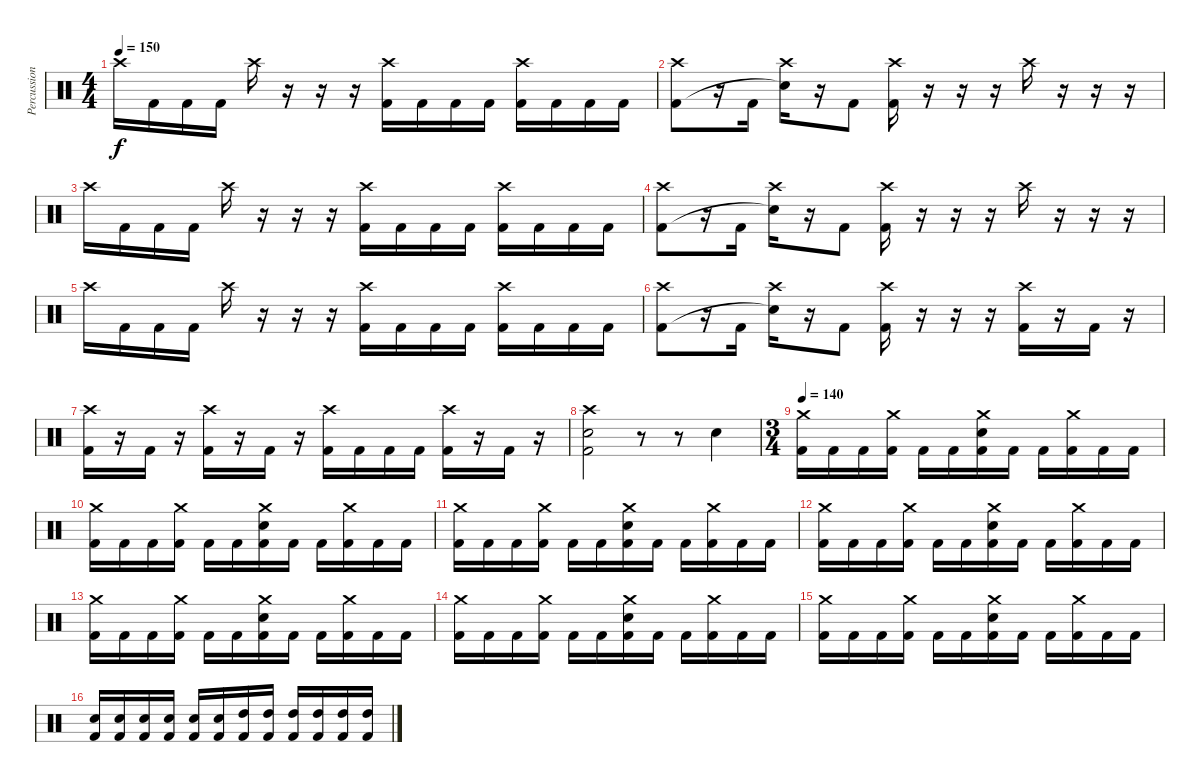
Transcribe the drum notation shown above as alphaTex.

\track ("Percussion" "Percussion") {instrument percussion}
\staff {score}
\articulation defaults
\ts (4 4)
\tempo 150
\clef neutral
\ks c "Crash high (hit)".16{dy f} "Kick (hit) 2".16 "Kick (hit) 2".16 "Kick (hit) 2".16 "Crash high (hit)".16
r.16 r.16 r.16 ("Crash high (hit)" "Kick (hit) 2").16 "Kick (hit) 2".16 "Kick (hit) 2".16 "Kick (hit) 2".16 ("Crash high (hit)" "Kick (hit) 2").16 "Kick (hit) 2".16 "Kick (hit) 2".16 "Kick (hit) 2".16 |
("Crash high (hit)" "Kick (hit) 2").8 r.16 "Kick (hit) 2".16 ("Crash high (hit)" "Snare (hit)"{t}).16 r.16 "Kick (hit) 2".8 ("Crash high (hit)" "Kick (hit) 2").16 r.16 r.16 r.16 "Crash high (hit)".16 r.16 r.16 r.16 |
"Crash high (hit)".16 "Kick (hit) 2".16 "Kick (hit) 2".16 "Kick (hit) 2".16 "Crash high (hit)".16 r.16 r.16 r.16 ("Crash high (hit)" "Kick (hit) 2").16 "Kick (hit) 2".16 "Kick (hit) 2".16 "Kick (hit) 2".16 ("Crash high (hit)" "Kick (hit) 2").16 "Kick (hit) 2".16 "Kick (hit) 2".16 "Kick (hit) 2".16 |
("Crash high (hit)" "Kick (hit) 2").8 r.16 "Kick (hit) 2".16 ("Crash high (hit)" "Snare (hit)"{t}).16 r.16 "Kick (hit) 2".8 ("Crash high (hit)" "Kick (hit) 2").16 r.16 r.16 r.16 "Crash high (hit)".16 r.16 r.16 r.16 |
"Crash high (hit)".16 "Kick (hit) 2".16 "Kick (hit) 2".16 "Kick (hit) 2".16 "Crash high (hit)".16 r.16 r.16 r.16 ("Crash high (hit)" "Kick (hit) 2").16 "Kick (hit) 2".16 "Kick (hit) 2".16 "Kick (hit) 2".16 ("Crash high (hit)" "Kick (hit) 2").16 "Kick (hit) 2".16 "Kick (hit) 2".16 "Kick (hit) 2".16 |
("Crash high (hit)" "Kick (hit) 2").8 r.16 "Kick (hit) 2".16 ("Crash high (hit)" "Snare (hit)"{t}).16 r.16 "Kick (hit) 2".8 ("Crash high (hit)" "Kick (hit) 2").16 r.16 r.16 r.16 ("Crash high (hit)" "Kick (hit) 2").16 r.16 "Kick (hit) 2".16 r.16 |
("Crash high (hit)" "Kick (hit) 2").16 r.16 "Kick (hit) 2".16 r.16 ("Crash high (hit)" "Kick (hit) 2").16 r.16 "Kick (hit) 2".16 r.16 ("Crash high (hit)" "Kick (hit) 2").16 "Kick (hit) 2".16 "Kick (hit) 2".16 "Kick (hit) 2".16 ("Crash high (hit)" "Kick (hit) 2").16 r.16 "Kick (hit) 2".16 r.16 |
("Crash high (hit)" "Snare (hit) 2" "Kick (hit) 2").2 r.8 r.8 "Snare (hit) 2".4 |
\ts (3 4)
\tempo 140
("Crash medium (hit)" "Kick (hit) 2").16 "Kick (hit) 2".16 "Kick (hit) 2".16 ("Crash medium (hit)" "Kick (hit) 2").16 "Kick (hit) 2".16 "Kick (hit) 2".16 ("Crash medium (hit)" "Snare (hit) 2" "Kick (hit) 2").16 "Kick (hit) 2".16 "Kick (hit) 2".16 ("Crash medium (hit)" "Kick (hit) 2").16 "Kick (hit) 2".16 "Kick (hit) 2".16 |
("Crash medium (hit)" "Kick (hit) 2").16 "Kick (hit) 2".16 "Kick (hit) 2".16 ("Crash medium (hit)" "Kick (hit) 2").16 "Kick (hit) 2".16 "Kick (hit) 2".16 ("Crash medium (hit)" "Snare (hit) 2" "Kick (hit) 2").16 "Kick (hit) 2".16 "Kick (hit) 2".16 ("Crash medium (hit)" "Kick (hit) 2").16 "Kick (hit) 2".16 "Kick (hit) 2".16 |
("Crash medium (hit)" "Kick (hit) 2").16 "Kick (hit) 2".16 "Kick (hit) 2".16 ("Crash medium (hit)" "Kick (hit) 2").16 "Kick (hit) 2".16 "Kick (hit) 2".16 ("Crash medium (hit)" "Snare (hit) 2" "Kick (hit) 2").16 "Kick (hit) 2".16 "Kick (hit) 2".16 ("Crash medium (hit)" "Kick (hit) 2").16 "Kick (hit) 2".16 "Kick (hit) 2".16 |
("Crash medium (hit)" "Kick (hit) 2").16 "Kick (hit) 2".16 "Kick (hit) 2".16 ("Crash medium (hit)" "Kick (hit) 2").16 "Kick (hit) 2".16 "Kick (hit) 2".16 ("Crash medium (hit)" "Snare (hit) 2" "Kick (hit) 2").16 "Kick (hit) 2".16 "Kick (hit) 2".16 ("Crash medium (hit)" "Kick (hit) 2").16 "Kick (hit) 2".16 "Kick (hit) 2".16 |
("Crash medium (hit)" "Kick (hit) 2").16 "Kick (hit) 2".16 "Kick (hit) 2".16 ("Crash medium (hit)" "Kick (hit) 2").16 "Kick (hit) 2".16 "Kick (hit) 2".16 ("Crash medium (hit)" "Snare (hit) 2" "Kick (hit) 2").16 "Kick (hit) 2".16 "Kick (hit) 2".16 ("Crash medium (hit)" "Kick (hit) 2").16 "Kick (hit) 2".16 "Kick (hit) 2".16 |
("Crash medium (hit)" "Kick (hit) 2").16 "Kick (hit) 2".16 "Kick (hit) 2".16 ("Crash medium (hit)" "Kick (hit) 2").16 "Kick (hit) 2".16 "Kick (hit) 2".16 ("Crash medium (hit)" "Snare (hit) 2" "Kick (hit) 2").16 "Kick (hit) 2".16 "Kick (hit) 2".16 ("Crash medium (hit)" "Kick (hit) 2").16 "Kick (hit) 2".16 "Kick (hit) 2".16 |
("Crash medium (hit)" "Kick (hit) 2").16 "Kick (hit) 2".16 "Kick (hit) 2".16 ("Crash medium (hit)" "Kick (hit) 2").16 "Kick (hit) 2".16 "Kick (hit) 2".16 ("Crash medium (hit)" "Snare (hit) 2" "Kick (hit) 2").16 "Kick (hit) 2".16 "Kick (hit) 2".16 ("Crash medium (hit)" "Kick (hit) 2").16 "Kick (hit) 2".16 "Kick (hit) 2".16 |
("Snare (hit) 2" "Kick (hit) 2").16 ("Snare (hit) 2" "Kick (hit) 2").16 ("Snare (hit) 2" "Kick (hit) 2").16 ("Snare (hit) 2" "Kick (hit) 2").16 ("Snare (hit) 2" "Kick (hit) 2").16 ("Snare (hit) 2" "Kick (hit) 2").16 ("High Tom (hit)" "Kick (hit) 2").16 ("High Tom (hit)" "Kick (hit) 2").16 ("High Tom (hit)" "Kick (hit) 2").16 ("High Tom (hit)" "Kick (hit) 2").16 ("High Tom (hit)" "Kick (hit) 2").16 ("High Tom (hit)" "Kick (hit) 2").16
